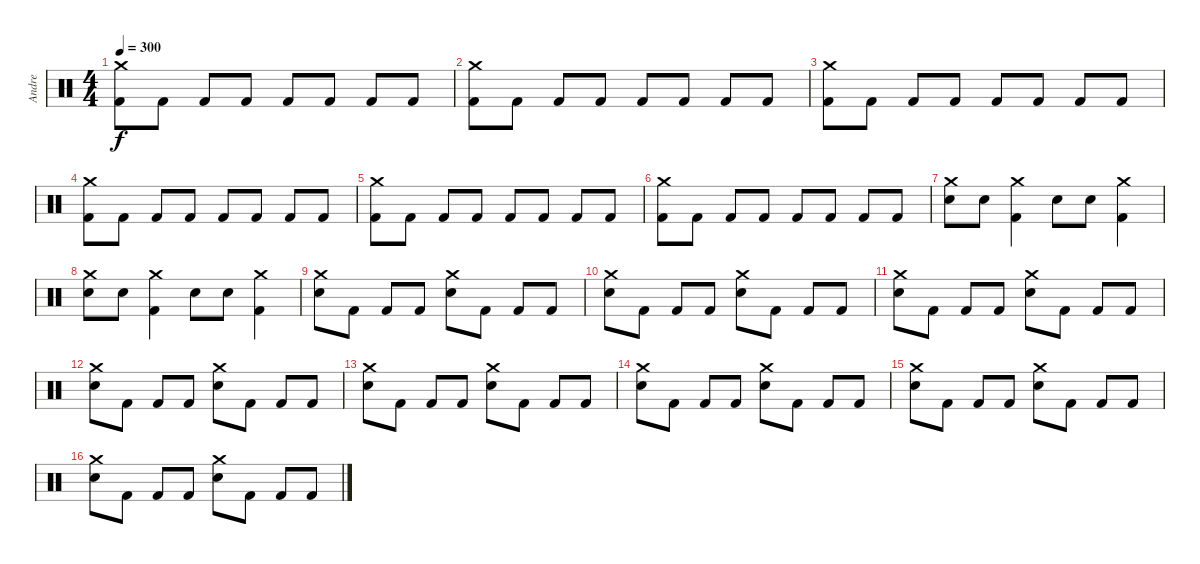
\track ("Andre" "Andre") {instrument percussion}
\staff {score}
\articulation defaults
\ts (4 4)
\tempo 300
\clef neutral
\ks c
("Crash medium (hit)" "Kick (hit) 2").8{dy f} "Kick (hit) 2".8 "Kick (hit) 2".8 "Kick (hit) 2".8 "Kick (hit) 2".8 "Kick (hit) 2".8 "Kick (hit) 2".8 "Kick (hit) 2".8 |
("Crash medium (hit)" "Kick (hit) 2").8 "Kick (hit) 2".8 "Kick (hit) 2".8 "Kick (hit) 2".8 "Kick (hit) 2".8 "Kick (hit) 2".8 "Kick (hit) 2".8 "Kick (hit) 2".8 |
("Crash medium (hit)" "Kick (hit) 2").8 "Kick (hit) 2".8 "Kick (hit) 2".8 "Kick (hit) 2".8 "Kick (hit) 2".8 "Kick (hit) 2".8 "Kick (hit) 2".8 "Kick (hit) 2".8 |
("Crash medium (hit)" "Kick (hit) 2").8 "Kick (hit) 2".8 "Kick (hit) 2".8 "Kick (hit) 2".8 "Kick (hit) 2".8 "Kick (hit) 2".8 "Kick (hit) 2".8 "Kick (hit) 2".8 |
("Crash medium (hit)" "Kick (hit) 2").8 "Kick (hit) 2".8 "Kick (hit) 2".8 "Kick (hit) 2".8 "Kick (hit) 2".8 "Kick (hit) 2".8 "Kick (hit) 2".8 "Kick (hit) 2".8 |
("Crash medium (hit)" "Kick (hit) 2").8 "Kick (hit) 2".8 "Kick (hit) 2".8 "Kick (hit) 2".8 "Kick (hit) 2".8 "Kick (hit) 2".8 "Kick (hit) 2".8 "Kick (hit) 2".8 |
("Crash medium (hit)" "Electric Snare (hit)").8 "Electric Snare (hit)".8 ("Crash medium (hit)" "Kick (hit) 2").4 "Electric Snare (hit)".8 "Electric Snare (hit)".8 ("Crash medium (hit)" "Kick (hit) 2").4 |
("Crash medium (hit)" "Electric Snare (hit)").8 "Electric Snare (hit)".8 ("Crash medium (hit)" "Kick (hit) 2").4 "Electric Snare (hit)".8 "Electric Snare (hit)".8 ("Crash medium (hit)" "Kick (hit) 2").4 |
("Crash medium (hit)" "Electric Snare (hit)").8 "Kick (hit) 2".8 "Kick (hit) 2".8 "Kick (hit) 2".8 ("Crash medium (hit)" "Electric Snare (hit)").8 "Kick (hit) 2".8 "Kick (hit) 2".8 "Kick (hit) 2".8 |
("Crash medium (hit)" "Electric Snare (hit)").8 "Kick (hit) 2".8 "Kick (hit) 2".8 "Kick (hit) 2".8 ("Crash medium (hit)" "Electric Snare (hit)").8 "Kick (hit) 2".8 "Kick (hit) 2".8 "Kick (hit) 2".8 |
("Crash medium (hit)" "Electric Snare (hit)").8 "Kick (hit) 2".8 "Kick (hit) 2".8 "Kick (hit) 2".8 ("Crash medium (hit)" "Electric Snare (hit)").8 "Kick (hit) 2".8 "Kick (hit) 2".8 "Kick (hit) 2".8 |
("Crash medium (hit)" "Electric Snare (hit)").8 "Kick (hit) 2".8 "Kick (hit) 2".8 "Kick (hit) 2".8 ("Crash medium (hit)" "Electric Snare (hit)").8 "Kick (hit) 2".8 "Kick (hit) 2".8 "Kick (hit) 2".8 |
("Crash medium (hit)" "Electric Snare (hit)").8 "Kick (hit) 2".8 "Kick (hit) 2".8 "Kick (hit) 2".8 ("Crash medium (hit)" "Electric Snare (hit)").8 "Kick (hit) 2".8 "Kick (hit) 2".8 "Kick (hit) 2".8 |
("Crash medium (hit)" "Electric Snare (hit)").8 "Kick (hit) 2".8 "Kick (hit) 2".8 "Kick (hit) 2".8 ("Crash medium (hit)" "Electric Snare (hit)").8 "Kick (hit) 2".8 "Kick (hit) 2".8 "Kick (hit) 2".8 |
("Crash medium (hit)" "Electric Snare (hit)").8 "Kick (hit) 2".8 "Kick (hit) 2".8 "Kick (hit) 2".8 ("Crash medium (hit)" "Electric Snare (hit)").8 "Kick (hit) 2".8 "Kick (hit) 2".8 "Kick (hit) 2".8 |
("Crash medium (hit)" "Electric Snare (hit)").8 "Kick (hit) 2".8 "Kick (hit) 2".8 "Kick (hit) 2".8 ("Crash medium (hit)" "Electric Snare (hit)").8 "Kick (hit) 2".8 "Kick (hit) 2".8 "Kick (hit) 2".8
